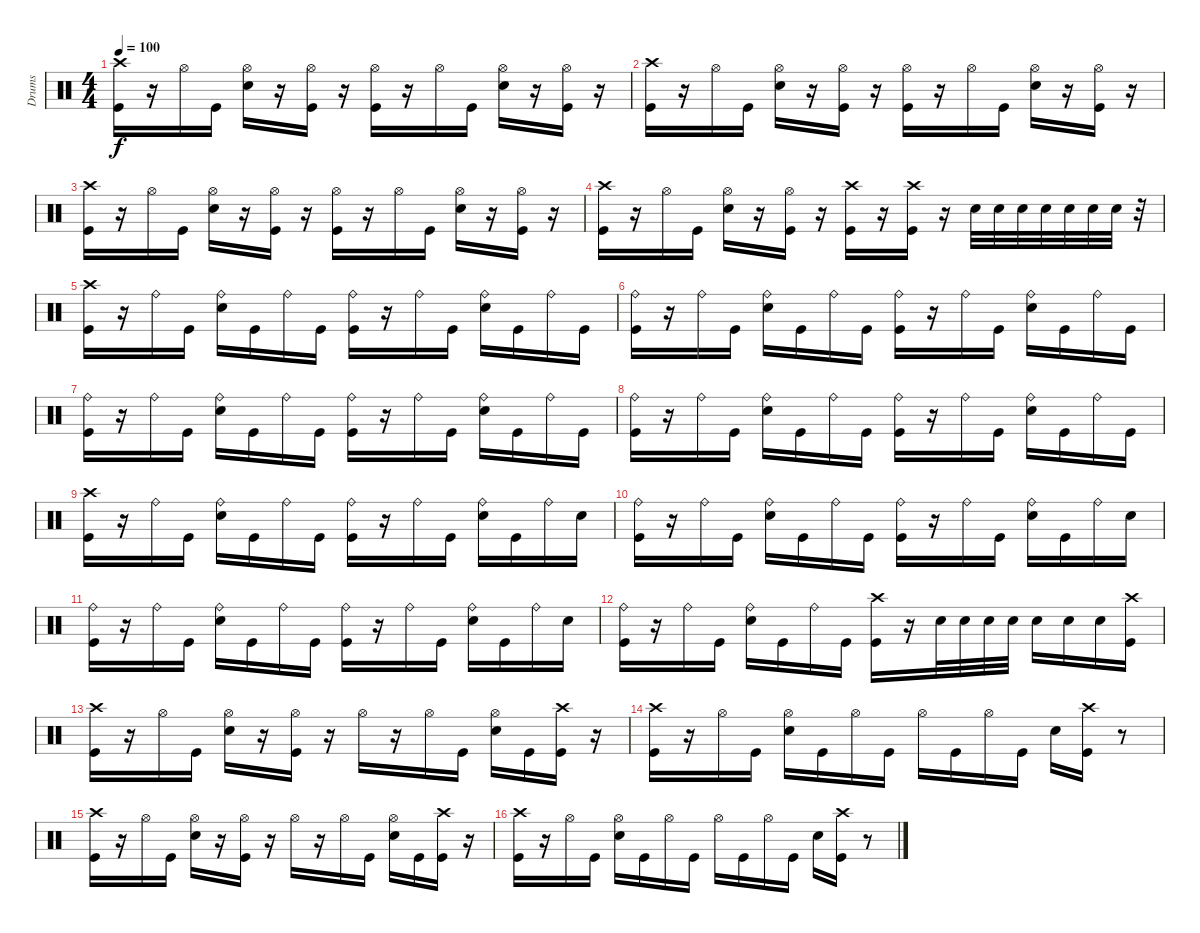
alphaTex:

\track ("Drums" "Drums") {instrument percussion}
\staff {score}
\articulation defaults
\ts (4 4)
\tempo 100
\clef neutral
\ks c
("Kick (hit)" "Crash high (hit)").16{dy f} r.16 "Hi-Hat (open)".16 "Kick (hit)".16 ("Electric Snare (hit)" "Hi-Hat (open)").16 r.16 ("Kick (hit)" "Hi-Hat (open)").16 r.16 ("Kick (hit)" "Hi-Hat (open)").16 r.16 "Hi-Hat (open)".16 "Kick (hit)".16 ("Electric Snare (hit)" "Hi-Hat (open)").16 r.16 ("Kick (hit)" "Hi-Hat (open)").16 r.16 |
("Kick (hit)" "Crash high (hit)").16 r.16 "Hi-Hat (open)".16 "Kick (hit)".16 ("Electric Snare (hit)" "Hi-Hat (open)").16 r.16 ("Kick (hit)" "Hi-Hat (open)").16 r.16 ("Kick (hit)" "Hi-Hat (open)").16 r.16 "Hi-Hat (open)".16 "Kick (hit)".16 ("Electric Snare (hit)" "Hi-Hat (open)").16 r.16 ("Kick (hit)" "Hi-Hat (open)").16 r.16 |
("Kick (hit)" "Crash high (hit)").16 r.16 "Hi-Hat (open)".16 "Kick (hit)".16 ("Electric Snare (hit)" "Hi-Hat (open)").16 r.16 ("Kick (hit)" "Hi-Hat (open)").16 r.16 ("Kick (hit)" "Hi-Hat (open)").16 r.16 "Hi-Hat (open)".16 "Kick (hit)".16 ("Electric Snare (hit)" "Hi-Hat (open)").16 r.16 ("Kick (hit)" "Hi-Hat (open)").16 r.16 |
("Kick (hit)" "Crash high (hit)").16 r.16 "Hi-Hat (open)".16 "Kick (hit)".16 ("Electric Snare (hit)" "Hi-Hat (open)").16 r.16 ("Kick (hit)" "Hi-Hat (open)").16 r.16 ("Kick (hit)" "Crash high (hit)").16 r.16 ("Kick (hit)" "Crash high (hit)").16 r.16 "Electric Snare (hit)".32 "Electric Snare (hit)".32 "Electric Snare (hit)".32 "Electric Snare (hit)".32 "Electric Snare (hit)".32 "Electric Snare (hit)".32 "Electric Snare (hit)".32 r.32 |
("Kick (hit)" "Crash high (hit)").16 r.16 "Ride (bell)".16 "Kick (hit)".16 ("Electric Snare (hit)" "Ride (bell)").16 "Kick (hit)".16 "Ride (bell)".16 "Kick (hit)".16 ("Kick (hit)" "Ride (bell)").16 r.16 "Ride (bell)".16 "Kick (hit)".16 ("Electric Snare (hit)" "Ride (bell)").16 "Kick (hit)".16 "Ride (bell)".16 "Kick (hit)".16 |
("Kick (hit)" "Ride (bell)").16 r.16 "Ride (bell)".16 "Kick (hit)".16 ("Electric Snare (hit)" "Ride (bell)").16 "Kick (hit)".16 "Ride (bell)".16 "Kick (hit)".16 ("Kick (hit)" "Ride (bell)").16 r.16 "Ride (bell)".16 "Kick (hit)".16 ("Electric Snare (hit)" "Ride (bell)").16 "Kick (hit)".16 "Ride (bell)".16 "Kick (hit)".16 |
("Kick (hit)" "Ride (bell)").16 r.16 "Ride (bell)".16 "Kick (hit)".16 ("Electric Snare (hit)" "Ride (bell)").16 "Kick (hit)".16 "Ride (bell)".16 "Kick (hit)".16 ("Kick (hit)" "Ride (bell)").16 r.16 "Ride (bell)".16 "Kick (hit)".16 ("Electric Snare (hit)" "Ride (bell)").16 "Kick (hit)".16 "Ride (bell)".16 "Kick (hit)".16 |
("Kick (hit)" "Ride (bell)").16 r.16 "Ride (bell)".16 "Kick (hit)".16 ("Electric Snare (hit)" "Ride (bell)").16 "Kick (hit)".16 "Ride (bell)".16 "Kick (hit)".16 ("Kick (hit)" "Ride (bell)").16 r.16 "Ride (bell)".16 "Kick (hit)".16 ("Electric Snare (hit)" "Ride (bell)").16 "Kick (hit)".16 "Ride (bell)".16 "Kick (hit)".16 |
("Kick (hit)" "Crash high (hit)").16 r.16 "Ride (bell)".16 "Kick (hit)".16 ("Electric Snare (hit)" "Ride (bell)").16 "Kick (hit)".16 "Ride (bell)".16 "Kick (hit)".16 ("Kick (hit)" "Ride (bell)").16 r.16 "Ride (bell)".16 "Kick (hit)".16 ("Electric Snare (hit)" "Ride (bell)").16 "Kick (hit)".16 "Ride (bell)".16 "Electric Snare (hit)".16 |
("Kick (hit)" "Ride (bell)").16 r.16 "Ride (bell)".16 "Kick (hit)".16 ("Electric Snare (hit)" "Ride (bell)").16 "Kick (hit)".16 "Ride (bell)".16 "Kick (hit)".16 ("Kick (hit)" "Ride (bell)").16 r.16 "Ride (bell)".16 "Kick (hit)".16 ("Electric Snare (hit)" "Ride (bell)").16 "Kick (hit)".16 "Ride (bell)".16 "Electric Snare (hit)".16 |
("Kick (hit)" "Ride (bell)").16 r.16 "Ride (bell)".16 "Kick (hit)".16 ("Electric Snare (hit)" "Ride (bell)").16 "Kick (hit)".16 "Ride (bell)".16 "Kick (hit)".16 ("Kick (hit)" "Ride (bell)").16 r.16 "Ride (bell)".16 "Kick (hit)".16 ("Electric Snare (hit)" "Ride (bell)").16 "Kick (hit)".16 "Ride (bell)".16 "Electric Snare (hit)".16 |
("Kick (hit)" "Ride (bell)").16 r.16 "Ride (bell)".16 "Kick (hit)".16 ("Electric Snare (hit)" "Ride (bell)").16 "Kick (hit)".16 "Ride (bell)".16 "Kick (hit)".16 ("Kick (hit)" "Crash high (hit)").16 r.16 "Electric Snare (hit)".32 "Electric Snare (hit)".32 "Electric Snare (hit)".32 "Electric Snare (hit)".32 "Electric Snare (hit)".16 "Electric Snare (hit)".16 "Electric Snare (hit)".16 ("Kick (hit)" "Crash high (hit)").16 |
("Kick (hit)" "Crash high (hit)").16 r.16 "Hi-Hat (open)".16 "Kick (hit)".16 ("Electric Snare (hit)" "Hi-Hat (open)").16 r.16 ("Kick (hit)" "Hi-Hat (open)").16 r.16 "Hi-Hat (open)".16 r.16 "Hi-Hat (open)".16 "Kick (hit)".16 ("Electric Snare (hit)" "Hi-Hat (open)").16 "Kick (hit)".16 ("Kick (hit)" "Crash high (hit)").16 r.16 |
("Kick (hit)" "Crash high (hit)").16 r.16 "Hi-Hat (open)".16 "Kick (hit)".16 ("Electric Snare (hit)" "Hi-Hat (open)").16 "Kick (hit)".16 "Hi-Hat (open)".16 "Kick (hit)".16 "Hi-Hat (open)".16 "Kick (hit)".16 "Hi-Hat (open)".16 "Kick (hit)".16 "Electric Snare (hit)".16 ("Kick (hit)" "Crash high (hit)").16 r.8 |
("Kick (hit)" "Crash high (hit)").16 r.16 "Hi-Hat (open)".16 "Kick (hit)".16 ("Electric Snare (hit)" "Hi-Hat (open)").16 r.16 ("Kick (hit)" "Hi-Hat (open)").16 r.16 "Hi-Hat (open)".16 r.16 "Hi-Hat (open)".16 "Kick (hit)".16 ("Electric Snare (hit)" "Hi-Hat (open)").16 "Kick (hit)".16 ("Kick (hit)" "Crash high (hit)").16 r.16 |
("Kick (hit)" "Crash high (hit)").16 r.16 "Hi-Hat (open)".16 "Kick (hit)".16 ("Electric Snare (hit)" "Hi-Hat (open)").16 "Kick (hit)".16 "Hi-Hat (open)".16 "Kick (hit)".16 "Hi-Hat (open)".16 "Kick (hit)".16 "Hi-Hat (open)".16 "Kick (hit)".16 "Electric Snare (hit)".16 ("Kick (hit)" "Crash high (hit)").16 r.8
